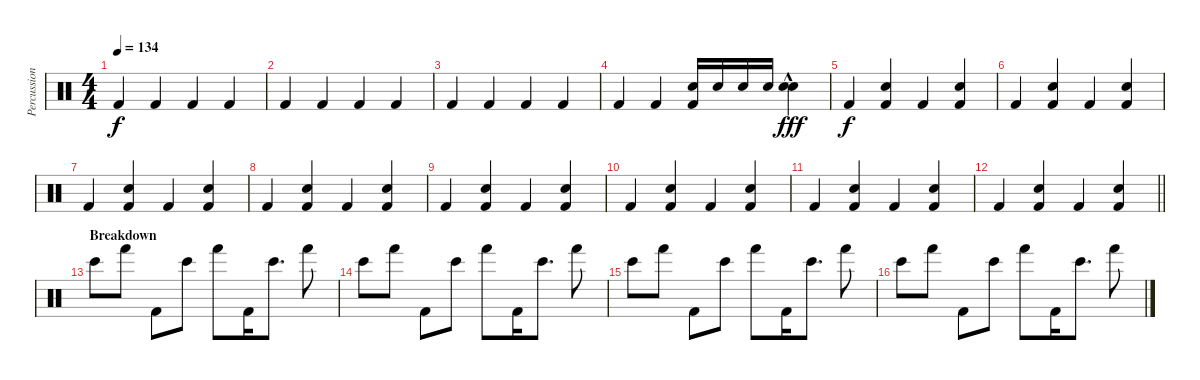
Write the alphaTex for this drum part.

\track ("Percussion" "Percussion") {instrument percussion}
\staff {score}
\articulation defaults
\ts (4 4)
\tempo 134
\clef neutral
\ks c "Kick (hit) 2".4{dy f} "Kick (hit) 2".4 "Kick (hit) 2".4 "Kick (hit) 2".4
|
"Kick (hit) 2".4 "Kick (hit) 2".4 "Kick (hit) 2".4 "Kick (hit) 2".4 |
"Kick (hit) 2".4 "Kick (hit) 2".4 "Kick (hit) 2".4 "Kick (hit) 2".4 |
"Kick (hit) 2".4 "Kick (hit) 2".4 ("Snare (hit) 2" "Kick (hit) 2").16 "Snare (hit) 2".16 "Snare (hit) 2".16 "Snare (hit) 2".16 ("Snare (hit) 2"{hac} "Snare (hit) 2"{hac}).4{dy fff} |
"Kick (hit) 2".4{dy f} ("Snare (hit) 2" "Kick (hit) 2").4 "Kick (hit) 2".4 ("Snare (hit) 2" "Kick (hit) 2").4 |
"Kick (hit) 2".4 ("Snare (hit) 2" "Kick (hit) 2").4 "Kick (hit) 2".4 ("Snare (hit) 2" "Kick (hit) 2").4 |
"Kick (hit) 2".4 ("Snare (hit) 2" "Kick (hit) 2").4 "Kick (hit) 2".4 ("Snare (hit) 2" "Kick (hit) 2").4 |
"Kick (hit) 2".4 ("Snare (hit) 2" "Kick (hit) 2").4 "Kick (hit) 2".4 ("Snare (hit) 2" "Kick (hit) 2").4 |
"Kick (hit) 2".4 ("Snare (hit) 2" "Kick (hit) 2").4 "Kick (hit) 2".4 ("Snare (hit) 2" "Kick (hit) 2").4 |
"Kick (hit) 2".4 ("Snare (hit) 2" "Kick (hit) 2").4 "Kick (hit) 2".4 ("Snare (hit) 2" "Kick (hit) 2").4 |
"Kick (hit) 2".4 ("Snare (hit) 2" "Kick (hit) 2").4 "Kick (hit) 2".4 ("Snare (hit) 2" "Kick (hit) 2").4 |
\barLineRight lightlight "Kick (hit) 2".4
("Snare (hit) 2" "Kick (hit) 2").4 "Kick (hit) 2".4 ("Snare (hit) 2" "Kick (hit) 2").4 |
\section ("" "Breakdown")
"Bongo High (hit)".8 "Hand (hit)".8 "Kick (hit) 2".8 "Bongo High (hit)".8 "Hand (hit)".8 "Kick (hit) 2".16 "Bongo High (hit)".8{d} "Hand (hit)".8 |
"Bongo High (hit)".8 "Hand (hit)".8 "Kick (hit) 2".8 "Bongo High (hit)".8 "Hand (hit)".8 "Kick (hit) 2".16 "Bongo High (hit)".8{d} "Hand (hit)".8 |
"Bongo High (hit)".8 "Hand (hit)".8 "Kick (hit) 2".8 "Bongo High (hit)".8 "Hand (hit)".8 "Kick (hit) 2".16 "Bongo High (hit)".8{d} "Hand (hit)".8 |
"Bongo High (hit)".8 "Hand (hit)".8 "Kick (hit) 2".8 "Bongo High (hit)".8 "Hand (hit)".8 "Kick (hit) 2".16 "Bongo High (hit)".8{d} "Hand (hit)".8
